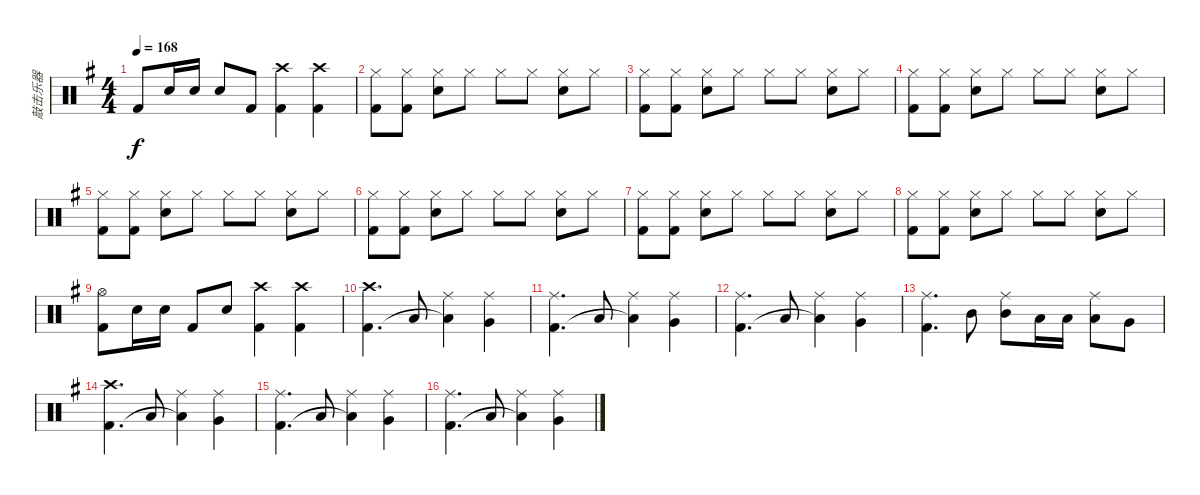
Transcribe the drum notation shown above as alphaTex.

\track ("敲击乐器" "敲击乐器") {instrument percussion}
\staff {score}
\articulation defaults
\ts (4 4)
\tempo 168
\clef neutral
\ks g "Kick (hit) 2".8{dy f} "Snare (hit) 2".16 "Snare (hit) 2".16 "Snare (hit) 2".8 "Kick (hit) 2".8
("Crash high (hit)" "Kick (hit) 2").4 ("Crash high (hit)" "Kick (hit) 2").4 |
("Hi-Hat (closed)" "Kick (hit) 2").8 ("Hi-Hat (closed)" "Kick (hit) 2").8 ("Hi-Hat (closed)" "Snare (hit) 2").8 "Hi-Hat (closed)".8 "Hi-Hat (closed)".8 "Hi-Hat (closed)".8 ("Hi-Hat (closed)" "Snare (hit) 2").8 "Hi-Hat (closed)".8 |
("Hi-Hat (closed)" "Kick (hit) 2").8 ("Hi-Hat (closed)" "Kick (hit) 2").8 ("Hi-Hat (closed)" "Snare (hit) 2").8 "Hi-Hat (closed)".8 "Hi-Hat (closed)".8 "Hi-Hat (closed)".8 ("Hi-Hat (closed)" "Snare (hit) 2").8 "Hi-Hat (closed)".8 |
("Hi-Hat (closed)" "Kick (hit) 2").8 ("Hi-Hat (closed)" "Kick (hit) 2").8 ("Hi-Hat (closed)" "Snare (hit) 2").8 "Hi-Hat (closed)".8 "Hi-Hat (closed)".8 "Hi-Hat (closed)".8 ("Hi-Hat (closed)" "Snare (hit) 2").8 "Hi-Hat (closed)".8 |
("Hi-Hat (closed)" "Kick (hit) 2").8 ("Hi-Hat (closed)" "Kick (hit) 2").8 ("Hi-Hat (closed)" "Snare (hit) 2").8 "Hi-Hat (closed)".8 "Hi-Hat (closed)".8 "Hi-Hat (closed)".8 ("Hi-Hat (closed)" "Snare (hit) 2").8 "Hi-Hat (closed)".8 |
("Hi-Hat (closed)" "Kick (hit) 2").8 ("Hi-Hat (closed)" "Kick (hit) 2").8 ("Hi-Hat (closed)" "Snare (hit) 2").8 "Hi-Hat (closed)".8 "Hi-Hat (closed)".8 "Hi-Hat (closed)".8 ("Hi-Hat (closed)" "Snare (hit) 2").8 "Hi-Hat (closed)".8 |
("Hi-Hat (closed)" "Kick (hit) 2").8 ("Hi-Hat (closed)" "Kick (hit) 2").8 ("Hi-Hat (closed)" "Snare (hit) 2").8 "Hi-Hat (closed)".8 "Hi-Hat (closed)".8 "Hi-Hat (closed)".8 ("Hi-Hat (closed)" "Snare (hit) 2").8 "Hi-Hat (closed)".8 |
("Hi-Hat (closed)" "Kick (hit) 2").8 ("Hi-Hat (closed)" "Kick (hit) 2").8 ("Hi-Hat (closed)" "Snare (hit) 2").8 "Hi-Hat (closed)".8 "Hi-Hat (closed)".8 "Hi-Hat (closed)".8 ("Hi-Hat (closed)" "Snare (hit) 2").8 "Hi-Hat (closed)".8 |
("Hi-Hat (open)" "Kick (hit) 2").8 "Snare (hit) 2".16 "Snare (hit) 2".16 "Kick (hit) 2".8 "Snare (hit) 2".8 ("Crash high (hit)" "Kick (hit) 2").4 ("Crash high (hit)" "Kick (hit) 2").4 |
("Crash high (hit)" "Kick (hit) 2").4{d} "Low Tom (hit)".8 ("Ride (middle)" "Low Floor Tom (hit)"{t}).4 ("Ride (middle)" "Very Low Tom (hit)").4 |
("Ride (middle)" "Kick (hit) 2").4{d} "Low Tom (hit)".8 ("Ride (middle)" "Low Floor Tom (hit)"{t}).4 ("Ride (middle)" "Very Low Tom (hit)").4 |
("Ride (middle)" "Kick (hit) 2").4{d} "Low Tom (hit)".8 ("Ride (middle)" "Low Floor Tom (hit)"{t}).4 ("Ride (middle)" "Very Low Tom (hit)").4 |
("Ride (middle)" "Kick (hit) 2").4{d} "Mid Tom (hit)".8 ("Ride (middle)" "Mid Tom (hit)").8 "Low Tom (hit)".16 "Low Tom (hit)".16 ("Ride (middle)" "Low Tom (hit)").8 "Very Low Tom (hit)".8 |
("Crash high (hit)" "Kick (hit) 2").4{d} "Low Tom (hit)".8 ("Ride (middle)" "Low Floor Tom (hit)"{t}).4 ("Ride (middle)" "Very Low Tom (hit)").4 |
("Ride (middle)" "Kick (hit) 2").4{d} "Low Tom (hit)".8 ("Ride (middle)" "Low Floor Tom (hit)"{t}).4 ("Ride (middle)" "Very Low Tom (hit)").4 |
("Ride (middle)" "Kick (hit) 2").4{d} "Low Tom (hit)".8 ("Ride (middle)" "Low Floor Tom (hit)"{t}).4 ("Ride (middle)" "Very Low Tom (hit)").4
